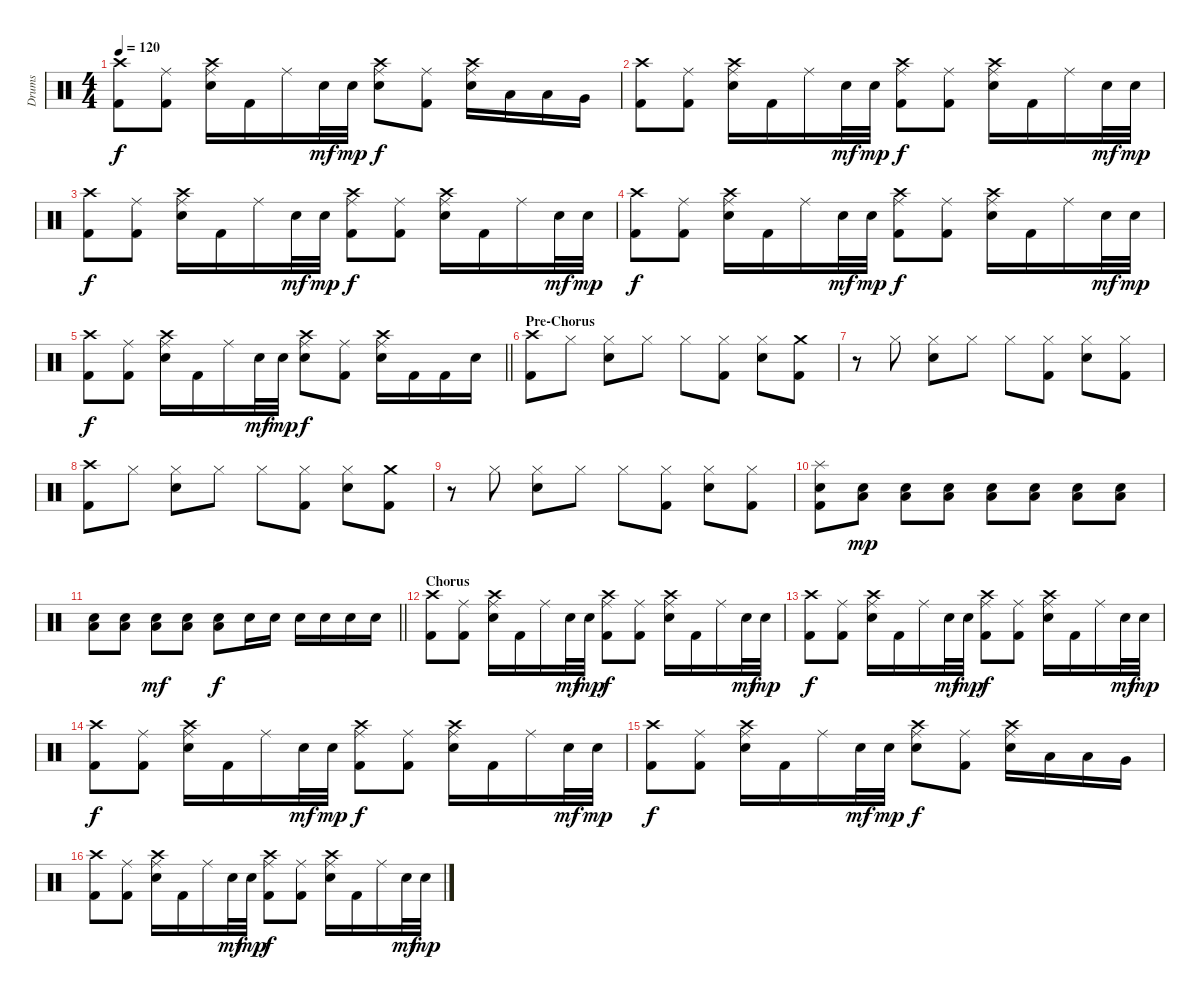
\track ("Drums" "Drums") {instrument percussion}
\staff {score}
\articulation defaults
\ts (4 4)
\tempo 120
\clef neutral
\ks c
("Crash high (hit)" "Kick (hit) 2").8{dy f} ("Ride (middle)" "Kick (hit) 2").8 ("Ride (middle)" "Crash high (hit)" "Snare (hit) 2").16 "Kick (hit) 2".16 "Ride (middle)".16 "Snare (hit) 2".32{dy mf} "Snare (hit) 2".32{dy mp} ("Ride (middle)" "Crash high (hit)" "Snare (hit) 2").8{dy f} ("Ride (middle)" "Kick (hit) 2").8 ("Ride (middle)" "Crash high (hit)" "Snare (hit) 2").16 "Low Tom (hit)".16 "Low Tom (hit)".16 "Very Low Tom (hit)".16 |
("Crash high (hit)" "Kick (hit) 2").8 ("Ride (middle)" "Kick (hit) 2").8 ("Ride (middle)" "Crash high (hit)" "Snare (hit) 2").16 "Kick (hit) 2".16 "Ride (middle)".16 "Snare (hit) 2".32{dy mf} "Snare (hit) 2".32{dy mp} ("Ride (middle)" "Crash high (hit)" "Kick (hit) 2").8{dy f} ("Ride (middle)" "Kick (hit) 2").8 ("Ride (middle)" "Crash high (hit)" "Snare (hit) 2").16 "Kick (hit) 2".16 "Ride (middle)".16 "Snare (hit) 2".32{dy mf} "Snare (hit) 2".32{dy mp} |
("Crash high (hit)" "Kick (hit) 2").8{dy f} ("Ride (middle)" "Kick (hit) 2").8 ("Ride (middle)" "Crash high (hit)" "Snare (hit) 2").16 "Kick (hit) 2".16 "Ride (middle)".16 "Snare (hit) 2".32{dy mf} "Snare (hit) 2".32{dy mp} ("Ride (middle)" "Crash high (hit)" "Kick (hit) 2").8{dy f} ("Ride (middle)" "Kick (hit) 2").8 ("Ride (middle)" "Crash high (hit)" "Snare (hit) 2").16 "Kick (hit) 2".16 "Ride (middle)".16 "Snare (hit) 2".32{dy mf} "Snare (hit) 2".32{dy mp} |
("Crash high (hit)" "Kick (hit) 2").8{dy f} ("Ride (middle)" "Kick (hit) 2").8 ("Ride (middle)" "Crash high (hit)" "Snare (hit) 2").16 "Kick (hit) 2".16 "Ride (middle)".16 "Snare (hit) 2".32{dy mf} "Snare (hit) 2".32{dy mp} ("Ride (middle)" "Crash high (hit)" "Kick (hit) 2").8{dy f} ("Ride (middle)" "Kick (hit) 2").8 ("Ride (middle)" "Crash high (hit)" "Snare (hit) 2").16 "Kick (hit) 2".16 "Ride (middle)".16 "Snare (hit) 2".32{dy mf} "Snare (hit) 2".32{dy mp} |
\barLineRight lightlight
("Crash high (hit)" "Kick (hit) 2").8{dy f} ("Ride (middle)" "Kick (hit) 2").8 ("Ride (middle)" "Crash high (hit)" "Snare (hit) 2").16 "Kick (hit) 2".16 "Ride (middle)".16 "Snare (hit) 2".32{dy mf} "Snare (hit) 2".32{dy mp} ("Ride (middle)" "Crash high (hit)" "Snare (hit) 2").8{dy f} ("Ride (middle)" "Kick (hit) 2").8 ("Ride (middle)" "Crash high (hit)" "Snare (hit) 2").16 "Kick (hit) 2".16 "Kick (hit) 2".16 "Snare (hit) 2".16 |
\section ("" "Pre-Chorus")
("Crash high (hit)" "Kick (hit) 2").8 "Hi-Hat (closed)".8 ("Hi-Hat (closed)" "Snare (hit) 2").8 "Hi-Hat (closed)".8 "Hi-Hat (closed)".8 ("Hi-Hat (closed)" "Kick (hit) 2").8 ("Hi-Hat (closed)" "Snare (hit) 2").8 ("Crash medium (hit)" "Kick (hit) 2").8 |
r.8 "Hi-Hat (closed)".8 ("Hi-Hat (closed)" "Snare (hit) 2").8 "Hi-Hat (closed)".8 "Hi-Hat (closed)".8 ("Hi-Hat (closed)" "Kick (hit) 2").8 ("Hi-Hat (closed)" "Snare (hit) 2").8 ("Hi-Hat (closed)" "Kick (hit) 2").8 |
("Crash high (hit)" "Kick (hit) 2").8 "Hi-Hat (closed)".8 ("Hi-Hat (closed)" "Snare (hit) 2").8 "Hi-Hat (closed)".8 "Hi-Hat (closed)".8 ("Hi-Hat (closed)" "Kick (hit) 2").8 ("Hi-Hat (closed)" "Snare (hit) 2").8 ("Crash medium (hit)" "Kick (hit) 2").8 |
r.8 "Hi-Hat (closed)".8 ("Hi-Hat (closed)" "Snare (hit) 2").8 "Hi-Hat (closed)".8 "Hi-Hat (closed)".8 ("Hi-Hat (closed)" "Kick (hit) 2").8 ("Hi-Hat (closed)" "Snare (hit) 2").8 ("Hi-Hat (closed)" "Kick (hit) 2").8 |
("Splash (hit)" "Snare (hit) 2" "Kick (hit) 2").8 ("Low Tom (hit)" "Snare (hit) 2").8{dy mp} ("Low Tom (hit)" "Snare (hit) 2").8 ("Low Tom (hit)" "Snare (hit) 2").8 ("Low Tom (hit)" "Snare (hit) 2").8 ("Low Tom (hit)" "Snare (hit) 2").8 ("Low Tom (hit)" "Snare (hit) 2").8 ("Low Tom (hit)" "Snare (hit) 2").8 |
\barLineRight lightlight
("Low Tom (hit)" "Snare (hit) 2").8 ("Low Tom (hit)" "Snare (hit) 2").8 ("Low Tom (hit)" "Snare (hit) 2").8{dy mf} ("Low Tom (hit)" "Snare (hit) 2").8 ("Low Tom (hit)" "Snare (hit) 2").8{dy f} "Snare (hit) 2".16 "Snare (hit) 2".16 "Snare (hit) 2".16 "Snare (hit) 2".16 "Snare (hit) 2".16 "Snare (hit) 2".16 |
\section ("" "Chorus")
("Crash high (hit)" "Kick (hit) 2").8 ("Ride (middle)" "Kick (hit) 2").8 ("Ride (middle)" "Crash high (hit)" "Snare (hit) 2").16 "Kick (hit) 2".16 "Ride (middle)".16 "Snare (hit) 2".32{dy mf} "Snare (hit) 2".32{dy mp} ("Ride (middle)" "Crash high (hit)" "Kick (hit) 2").8{dy f} ("Ride (middle)" "Kick (hit) 2").8 ("Ride (middle)" "Crash high (hit)" "Snare (hit) 2").16 "Kick (hit) 2".16 "Ride (middle)".16 "Snare (hit) 2".32{dy mf} "Snare (hit) 2".32{dy mp} |
("Crash high (hit)" "Kick (hit) 2").8{dy f} ("Ride (middle)" "Kick (hit) 2").8 ("Ride (middle)" "Crash high (hit)" "Snare (hit) 2").16 "Kick (hit) 2".16 "Ride (middle)".16 "Snare (hit) 2".32{dy mf} "Snare (hit) 2".32{dy mp} ("Ride (middle)" "Crash high (hit)" "Kick (hit) 2").8{dy f} ("Ride (middle)" "Kick (hit) 2").8 ("Ride (middle)" "Crash high (hit)" "Snare (hit) 2").16 "Kick (hit) 2".16 "Ride (middle)".16 "Snare (hit) 2".32{dy mf} "Snare (hit) 2".32{dy mp} |
("Crash high (hit)" "Kick (hit) 2").8{dy f} ("Ride (middle)" "Kick (hit) 2").8 ("Ride (middle)" "Crash high (hit)" "Snare (hit) 2").16 "Kick (hit) 2".16 "Ride (middle)".16 "Snare (hit) 2".32{dy mf} "Snare (hit) 2".32{dy mp} ("Ride (middle)" "Crash high (hit)" "Kick (hit) 2").8{dy f} ("Ride (middle)" "Kick (hit) 2").8 ("Ride (middle)" "Crash high (hit)" "Snare (hit) 2").16 "Kick (hit) 2".16 "Ride (middle)".16 "Snare (hit) 2".32{dy mf} "Snare (hit) 2".32{dy mp} |
("Crash high (hit)" "Kick (hit) 2").8{dy f} ("Ride (middle)" "Kick (hit) 2").8 ("Ride (middle)" "Crash high (hit)" "Snare (hit) 2").16 "Kick (hit) 2".16 "Ride (middle)".16 "Snare (hit) 2".32{dy mf} "Snare (hit) 2".32{dy mp} ("Ride (middle)" "Crash high (hit)" "Snare (hit) 2").8{dy f} ("Ride (middle)" "Kick (hit) 2").8 ("Ride (middle)" "Crash high (hit)" "Snare (hit) 2").16 "Low Tom (hit)".16 "Low Tom (hit)".16 "Very Low Tom (hit)".16 |
("Crash high (hit)" "Kick (hit) 2").8 ("Ride (middle)" "Kick (hit) 2").8 ("Ride (middle)" "Crash high (hit)" "Snare (hit) 2").16 "Kick (hit) 2".16 "Ride (middle)".16 "Snare (hit) 2".32{dy mf} "Snare (hit) 2".32{dy mp} ("Ride (middle)" "Crash high (hit)" "Kick (hit) 2").8{dy f} ("Ride (middle)" "Kick (hit) 2").8 ("Ride (middle)" "Crash high (hit)" "Snare (hit) 2").16 "Kick (hit) 2".16 "Ride (middle)".16 "Snare (hit) 2".32{dy mf} "Snare (hit) 2".32{dy mp}
